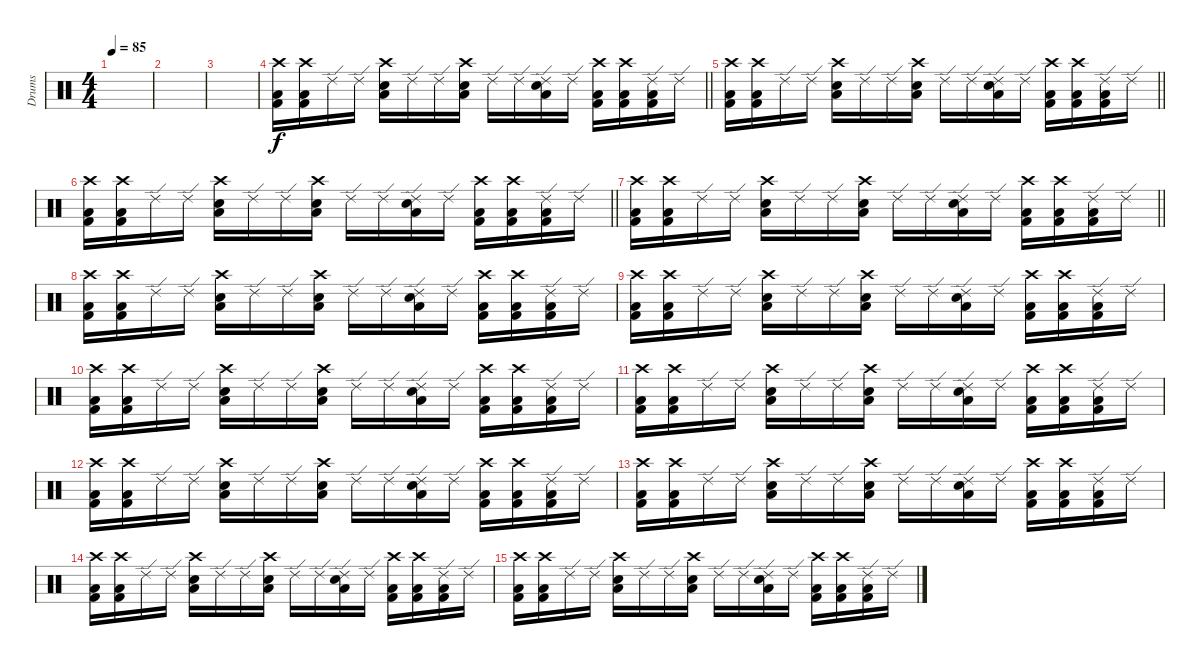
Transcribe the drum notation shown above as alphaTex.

\track ("Drums" "Drums") {instrument percussion}
\staff {score}
\articulation defaults
\ts (4 4)
\tempo 85
\clef neutral
\ks c
|
|
|
\barLineRight lightlight
("Crash high (hit)" "Low Floor Tom (hit)" "Kick (hit) 2").16 ("Crash high (hit)" "Low Floor Tom (hit)" "Kick (hit) 2").16 "Ride (edge) 2".16 "Ride (edge) 2".16 ("Crash high (hit)" "Low Floor Tom (hit)" "Snare (hit) 2").16 "Ride (edge) 2".16 "Ride (edge) 2".16 ("Crash high (hit)" "Low Floor Tom (hit)" "Snare (hit) 2").16 "Ride (edge) 2".16 "Ride (edge) 2".16 ("Ride (edge) 2" "Low Floor Tom (hit)" "Snare (hit) 2").16 "Ride (edge) 2".16 ("Crash high (hit)" "Low Floor Tom (hit)" "Kick (hit) 2").16 ("Crash high (hit)" "Low Floor Tom (hit)" "Kick (hit) 2").16 ("Ride (edge) 2" "Low Floor Tom (hit)" "Kick (hit) 2").16 "Ride (edge) 2".16 |
\barLineRight lightlight
("Crash high (hit)" "Low Floor Tom (hit)" "Kick (hit) 2").16 ("Crash high (hit)" "Low Floor Tom (hit)" "Kick (hit) 2").16 "Ride (edge) 2".16 "Ride (edge) 2".16 ("Crash high (hit)" "Low Floor Tom (hit)" "Snare (hit) 2").16 "Ride (edge) 2".16 "Ride (edge) 2".16 ("Crash high (hit)" "Low Floor Tom (hit)" "Snare (hit) 2").16 "Ride (edge) 2".16 "Ride (edge) 2".16 ("Ride (edge) 2" "Low Floor Tom (hit)" "Snare (hit) 2").16 "Ride (edge) 2".16 ("Crash high (hit)" "Low Floor Tom (hit)" "Kick (hit) 2").16 ("Crash high (hit)" "Low Floor Tom (hit)" "Kick (hit) 2").16 ("Ride (edge) 2" "Low Floor Tom (hit)" "Kick (hit) 2").16 "Ride (edge) 2".16 |
\barLineRight lightlight
("Crash high (hit)" "Low Floor Tom (hit)" "Kick (hit) 2").16 ("Crash high (hit)" "Low Floor Tom (hit)" "Kick (hit) 2").16 "Ride (edge) 2".16 "Ride (edge) 2".16 ("Crash high (hit)" "Low Floor Tom (hit)" "Snare (hit) 2").16 "Ride (edge) 2".16 "Ride (edge) 2".16 ("Crash high (hit)" "Low Floor Tom (hit)" "Snare (hit) 2").16 "Ride (edge) 2".16 "Ride (edge) 2".16 ("Ride (edge) 2" "Low Floor Tom (hit)" "Snare (hit) 2").16 "Ride (edge) 2".16 ("Crash high (hit)" "Low Floor Tom (hit)" "Kick (hit) 2").16 ("Crash high (hit)" "Low Floor Tom (hit)" "Kick (hit) 2").16 ("Ride (edge) 2" "Low Floor Tom (hit)" "Kick (hit) 2").16 "Ride (edge) 2".16 |
\barLineRight lightlight
("Crash high (hit)" "Low Floor Tom (hit)" "Kick (hit) 2").16 ("Crash high (hit)" "Low Floor Tom (hit)" "Kick (hit) 2").16 "Ride (edge) 2".16 "Ride (edge) 2".16 ("Crash high (hit)" "Low Floor Tom (hit)" "Snare (hit) 2").16 "Ride (edge) 2".16 "Ride (edge) 2".16 ("Crash high (hit)" "Low Floor Tom (hit)" "Snare (hit) 2").16 "Ride (edge) 2".16 "Ride (edge) 2".16 ("Ride (edge) 2" "Low Floor Tom (hit)" "Snare (hit) 2").16 "Ride (edge) 2".16 ("Crash high (hit)" "Low Floor Tom (hit)" "Kick (hit) 2").16 ("Crash high (hit)" "Low Floor Tom (hit)" "Kick (hit) 2").16 ("Ride (edge) 2" "Low Floor Tom (hit)" "Kick (hit) 2").16 "Ride (edge) 2".16 |
("Crash high (hit)" "Low Floor Tom (hit)" "Kick (hit) 2").16 ("Crash high (hit)" "Low Floor Tom (hit)" "Kick (hit) 2").16 "Ride (edge) 2".16 "Ride (edge) 2".16 ("Crash high (hit)" "Low Floor Tom (hit)" "Snare (hit) 2").16 "Ride (edge) 2".16 "Ride (edge) 2".16 ("Crash high (hit)" "Low Floor Tom (hit)" "Snare (hit) 2").16 "Ride (edge) 2".16 "Ride (edge) 2".16 ("Ride (edge) 2" "Low Floor Tom (hit)" "Snare (hit) 2").16 "Ride (edge) 2".16 ("Crash high (hit)" "Low Floor Tom (hit)" "Kick (hit) 2").16 ("Crash high (hit)" "Low Floor Tom (hit)" "Kick (hit) 2").16 ("Ride (edge) 2" "Low Floor Tom (hit)" "Kick (hit) 2").16 "Ride (edge) 2".16 |
("Crash high (hit)" "Low Floor Tom (hit)" "Kick (hit) 2").16 ("Crash high (hit)" "Low Floor Tom (hit)" "Kick (hit) 2").16 "Ride (edge) 2".16 "Ride (edge) 2".16 ("Crash high (hit)" "Low Floor Tom (hit)" "Snare (hit) 2").16 "Ride (edge) 2".16 "Ride (edge) 2".16 ("Crash high (hit)" "Low Floor Tom (hit)" "Snare (hit) 2").16 "Ride (edge) 2".16 "Ride (edge) 2".16 ("Ride (edge) 2" "Low Floor Tom (hit)" "Snare (hit) 2").16 "Ride (edge) 2".16 ("Crash high (hit)" "Low Floor Tom (hit)" "Kick (hit) 2").16 ("Crash high (hit)" "Low Floor Tom (hit)" "Kick (hit) 2").16 ("Ride (edge) 2" "Low Floor Tom (hit)" "Kick (hit) 2").16 "Ride (edge) 2".16 |
("Crash high (hit)" "Low Floor Tom (hit)" "Kick (hit) 2").16 ("Crash high (hit)" "Low Floor Tom (hit)" "Kick (hit) 2").16 "Ride (edge) 2".16 "Ride (edge) 2".16 ("Crash high (hit)" "Low Floor Tom (hit)" "Snare (hit) 2").16 "Ride (edge) 2".16 "Ride (edge) 2".16 ("Crash high (hit)" "Low Floor Tom (hit)" "Snare (hit) 2").16 "Ride (edge) 2".16 "Ride (edge) 2".16 ("Ride (edge) 2" "Low Floor Tom (hit)" "Snare (hit) 2").16 "Ride (edge) 2".16 ("Crash high (hit)" "Low Floor Tom (hit)" "Kick (hit) 2").16 ("Crash high (hit)" "Low Floor Tom (hit)" "Kick (hit) 2").16 ("Ride (edge) 2" "Low Floor Tom (hit)" "Kick (hit) 2").16 "Ride (edge) 2".16 |
("Crash high (hit)" "Low Floor Tom (hit)" "Kick (hit) 2").16 ("Crash high (hit)" "Low Floor Tom (hit)" "Kick (hit) 2").16 "Ride (edge) 2".16 "Ride (edge) 2".16 ("Crash high (hit)" "Low Floor Tom (hit)" "Snare (hit) 2").16 "Ride (edge) 2".16 "Ride (edge) 2".16 ("Crash high (hit)" "Low Floor Tom (hit)" "Snare (hit) 2").16 "Ride (edge) 2".16 "Ride (edge) 2".16 ("Ride (edge) 2" "Low Floor Tom (hit)" "Snare (hit) 2").16 "Ride (edge) 2".16 ("Crash high (hit)" "Low Floor Tom (hit)" "Kick (hit) 2").16 ("Crash high (hit)" "Low Floor Tom (hit)" "Kick (hit) 2").16 ("Ride (edge) 2" "Low Floor Tom (hit)" "Kick (hit) 2").16 "Ride (edge) 2".16 |
("Crash high (hit)" "Low Floor Tom (hit)" "Kick (hit) 2").16{volume 0} ("Crash high (hit)" "Low Floor Tom (hit)" "Kick (hit) 2").16 "Ride (edge) 2".16 "Ride (edge) 2".16 ("Crash high (hit)" "Low Floor Tom (hit)" "Snare (hit) 2").16 "Ride (edge) 2".16 "Ride (edge) 2".16 ("Crash high (hit)" "Low Floor Tom (hit)" "Snare (hit) 2").16 "Ride (edge) 2".16 "Ride (edge) 2".16 ("Ride (edge) 2" "Low Floor Tom (hit)" "Snare (hit) 2").16 "Ride (edge) 2".16 ("Crash high (hit)" "Low Floor Tom (hit)" "Kick (hit) 2").16 ("Crash high (hit)" "Low Floor Tom (hit)" "Kick (hit) 2").16 ("Ride (edge) 2" "Low Floor Tom (hit)" "Kick (hit) 2").16 "Ride (edge) 2".16 |
("Crash high (hit)" "Low Floor Tom (hit)" "Kick (hit) 2").16 ("Crash high (hit)" "Low Floor Tom (hit)" "Kick (hit) 2").16 "Ride (edge) 2".16 "Ride (edge) 2".16 ("Crash high (hit)" "Low Floor Tom (hit)" "Snare (hit) 2").16 "Ride (edge) 2".16 "Ride (edge) 2".16 ("Crash high (hit)" "Low Floor Tom (hit)" "Snare (hit) 2").16 "Ride (edge) 2".16 "Ride (edge) 2".16 ("Ride (edge) 2" "Low Floor Tom (hit)" "Snare (hit) 2").16 "Ride (edge) 2".16 ("Crash high (hit)" "Low Floor Tom (hit)" "Kick (hit) 2").16 ("Crash high (hit)" "Low Floor Tom (hit)" "Kick (hit) 2").16 ("Ride (edge) 2" "Low Floor Tom (hit)" "Kick (hit) 2").16 "Ride (edge) 2".16 |
("Crash high (hit)" "Low Floor Tom (hit)" "Kick (hit) 2").16 ("Crash high (hit)" "Low Floor Tom (hit)" "Kick (hit) 2").16 "Ride (edge) 2".16 "Ride (edge) 2".16 ("Crash high (hit)" "Low Floor Tom (hit)" "Snare (hit) 2").16 "Ride (edge) 2".16 "Ride (edge) 2".16 ("Crash high (hit)" "Low Floor Tom (hit)" "Snare (hit) 2").16 "Ride (edge) 2".16 "Ride (edge) 2".16 ("Ride (edge) 2" "Low Floor Tom (hit)" "Snare (hit) 2").16 "Ride (edge) 2".16 ("Crash high (hit)" "Low Floor Tom (hit)" "Kick (hit) 2").16 ("Crash high (hit)" "Low Floor Tom (hit)" "Kick (hit) 2").16 ("Ride (edge) 2" "Low Floor Tom (hit)" "Kick (hit) 2").16 "Ride (edge) 2".16 |
("Crash high (hit)" "Low Floor Tom (hit)" "Kick (hit) 2").16 ("Crash high (hit)" "Low Floor Tom (hit)" "Kick (hit) 2").16 "Ride (edge) 2".16 "Ride (edge) 2".16 ("Crash high (hit)" "Low Floor Tom (hit)" "Snare (hit) 2").16 "Ride (edge) 2".16 "Ride (edge) 2".16 ("Crash high (hit)" "Low Floor Tom (hit)" "Snare (hit) 2").16 "Ride (edge) 2".16 "Ride (edge) 2".16 ("Ride (edge) 2" "Low Floor Tom (hit)" "Snare (hit) 2").16 "Ride (edge) 2".16 ("Crash high (hit)" "Low Floor Tom (hit)" "Kick (hit) 2").16 ("Crash high (hit)" "Low Floor Tom (hit)" "Kick (hit) 2").16 ("Ride (edge) 2" "Low Floor Tom (hit)" "Kick (hit) 2").16 "Ride (edge) 2".16
